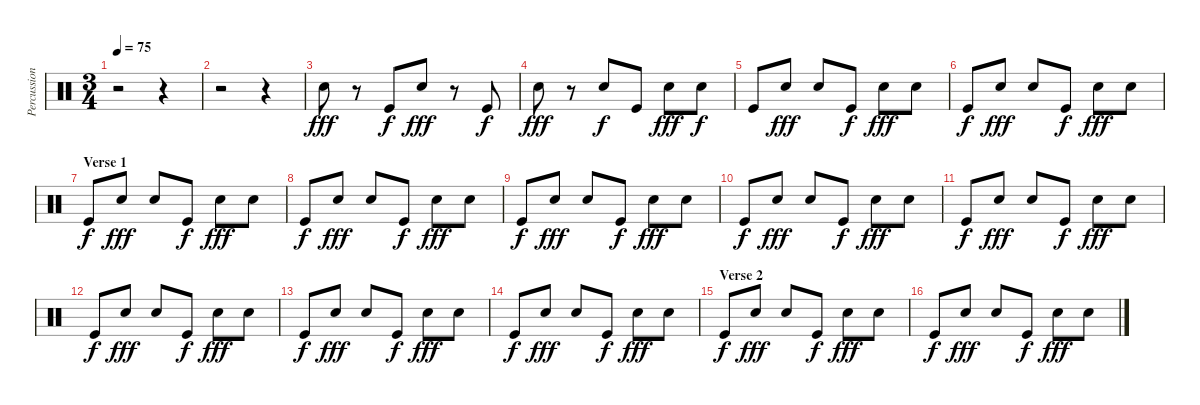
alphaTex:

\track ("Percussion" "Percussion") {instrument percussion}
\staff {score}
\articulation defaults
\ts (3 4)
\tempo 75
\clef neutral
\ks c
r.2{dy fff} r.4 |
r.2 r.4 |
"Snare (hit) 2".8 r.8 "Kick (hit)".8{dy f} "Snare (hit) 2".8{dy fff} r.8 "Kick (hit)".8{dy f} |
"Snare (hit) 2".8{dy fff} r.8 "Snare (hit) 2".8{dy f} "Kick (hit)".8 "Snare (hit) 2".8{dy fff} "Snare (hit) 2".8{dy f} |
"Kick (hit)".8 "Snare (hit) 2".8{dy fff} "Snare (hit) 2".8 "Kick (hit)".8{dy f} "Snare (hit) 2".8{dy fff} "Snare (hit) 2".8 |
"Kick (hit)".8{dy f} "Snare (hit) 2".8{dy fff} "Snare (hit) 2".8 "Kick (hit)".8{dy f} "Snare (hit) 2".8{dy fff} "Snare (hit) 2".8 |
\section ("" "Verse 1")
"Kick (hit)".8{dy f} "Snare (hit) 2".8{dy fff} "Snare (hit) 2".8 "Kick (hit)".8{dy f} "Snare (hit) 2".8{dy fff} "Snare (hit) 2".8 |
"Kick (hit)".8{dy f} "Snare (hit) 2".8{dy fff} "Snare (hit) 2".8 "Kick (hit)".8{dy f} "Snare (hit) 2".8{dy fff} "Snare (hit) 2".8 |
"Kick (hit)".8{dy f} "Snare (hit) 2".8{dy fff} "Snare (hit) 2".8 "Kick (hit)".8{dy f} "Snare (hit) 2".8{dy fff} "Snare (hit) 2".8 |
"Kick (hit)".8{dy f} "Snare (hit) 2".8{dy fff} "Snare (hit) 2".8 "Kick (hit)".8{dy f} "Snare (hit) 2".8{dy fff} "Snare (hit) 2".8 |
"Kick (hit)".8{dy f} "Snare (hit) 2".8{dy fff} "Snare (hit) 2".8 "Kick (hit)".8{dy f} "Snare (hit) 2".8{dy fff} "Snare (hit) 2".8 |
"Kick (hit)".8{dy f} "Snare (hit) 2".8{dy fff} "Snare (hit) 2".8 "Kick (hit)".8{dy f} "Snare (hit) 2".8{dy fff} "Snare (hit) 2".8 |
"Kick (hit)".8{dy f} "Snare (hit) 2".8{dy fff} "Snare (hit) 2".8 "Kick (hit)".8{dy f} "Snare (hit) 2".8{dy fff} "Snare (hit) 2".8 |
"Kick (hit)".8{dy f} "Snare (hit) 2".8{dy fff} "Snare (hit) 2".8 "Kick (hit)".8{dy f} "Snare (hit) 2".8{dy fff} "Snare (hit) 2".8 |
\section ("" "Verse 2")
"Kick (hit)".8{dy f} "Snare (hit) 2".8{dy fff} "Snare (hit) 2".8 "Kick (hit)".8{dy f} "Snare (hit) 2".8{dy fff} "Snare (hit) 2".8 |
"Kick (hit)".8{dy f} "Snare (hit) 2".8{dy fff} "Snare (hit) 2".8 "Kick (hit)".8{dy f} "Snare (hit) 2".8{dy fff} "Snare (hit) 2".8
